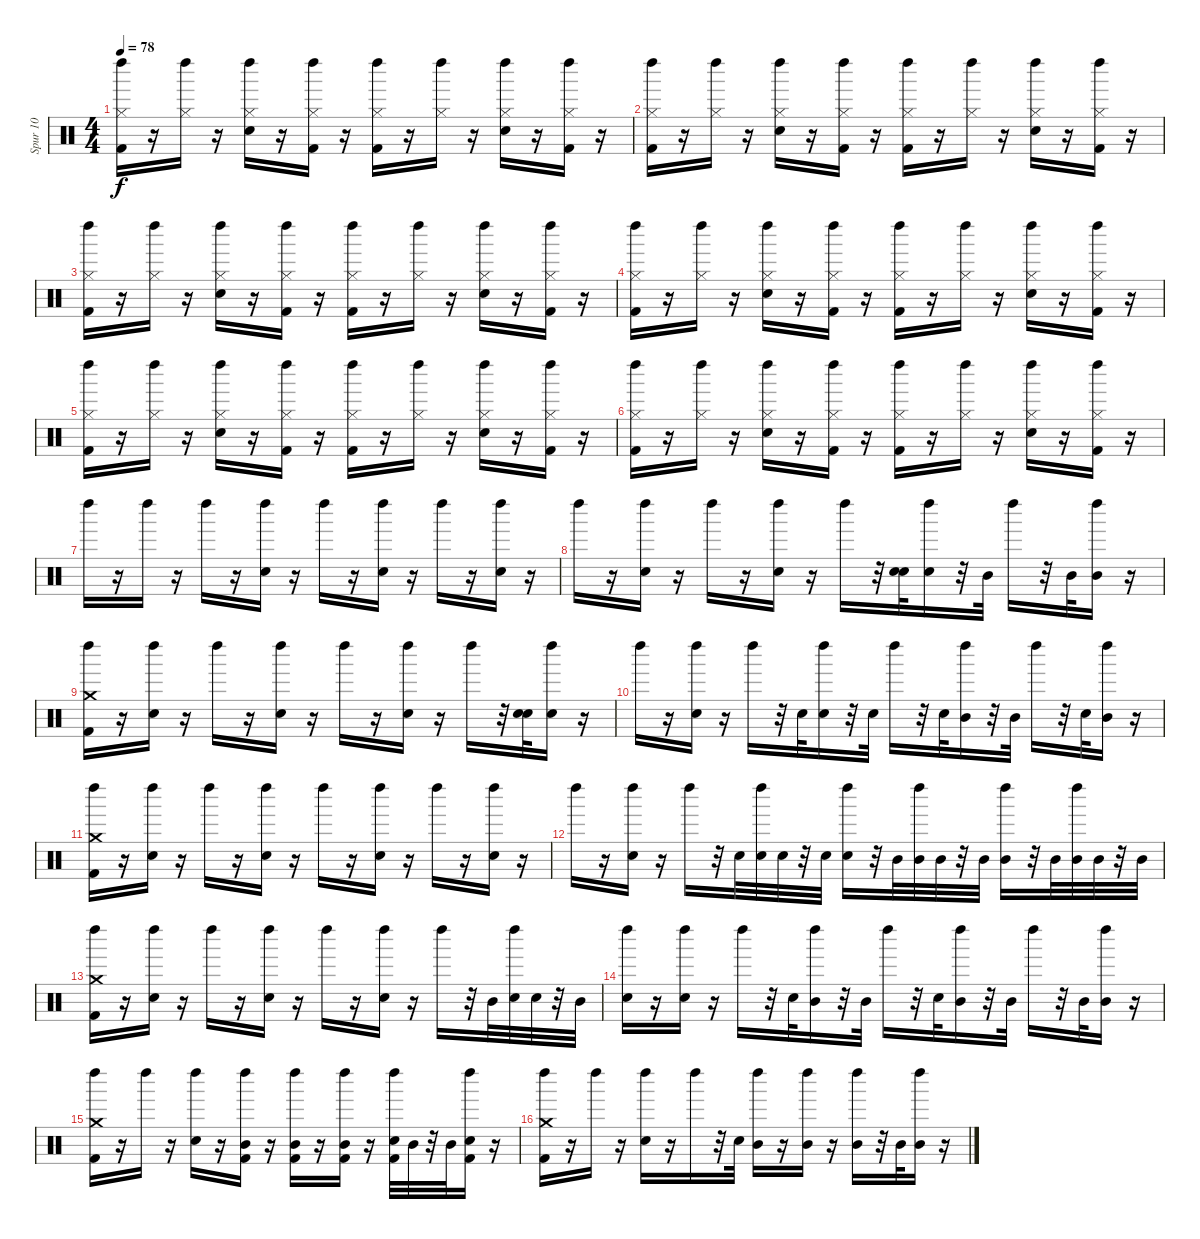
\track ("Spur 10" "Spur 10") {instrument percussion}
\staff {score}
\articulation defaults
\ts (4 4)
\tempo 78
\clef neutral
\ks c
("Left Maraca (hit)" "Kick (hit) 2" "Hi-Hat (closed)").16{dy f} r.16 ("Left Maraca (hit)" "Hi-Hat (closed)").16 r.16 ("Left Maraca (hit)" "Snare (hit) 2" "Hi-Hat (closed)").16 r.16 ("Left Maraca (hit)" "Kick (hit) 2" "Hi-Hat (closed)").16 r.16 ("Left Maraca (hit)" "Kick (hit) 2" "Hi-Hat (closed)").16 r.16 ("Left Maraca (hit)" "Hi-Hat (closed)").16 r.16 ("Left Maraca (hit)" "Snare (hit) 2" "Hi-Hat (closed)").16 r.16 ("Left Maraca (hit)" "Kick (hit) 2" "Hi-Hat (closed)").16 r.16 |
("Left Maraca (hit)" "Kick (hit) 2" "Hi-Hat (closed)").16 r.16 ("Left Maraca (hit)" "Hi-Hat (closed)").16 r.16 ("Left Maraca (hit)" "Snare (hit) 2" "Hi-Hat (closed)").16 r.16 ("Left Maraca (hit)" "Kick (hit) 2" "Hi-Hat (closed)").16 r.16 ("Left Maraca (hit)" "Kick (hit) 2" "Hi-Hat (closed)").16 r.16 ("Left Maraca (hit)" "Hi-Hat (closed)").16 r.16 ("Left Maraca (hit)" "Snare (hit) 2" "Hi-Hat (closed)").16 r.16 ("Left Maraca (hit)" "Kick (hit) 2" "Hi-Hat (closed)").16 r.16 |
("Left Maraca (hit)" "Kick (hit) 2" "Hi-Hat (closed)").16 r.16 ("Left Maraca (hit)" "Hi-Hat (closed)").16 r.16 ("Left Maraca (hit)" "Snare (hit) 2" "Hi-Hat (closed)").16 r.16 ("Left Maraca (hit)" "Kick (hit) 2" "Hi-Hat (closed)").16 r.16 ("Left Maraca (hit)" "Kick (hit) 2" "Hi-Hat (closed)").16 r.16 ("Left Maraca (hit)" "Hi-Hat (closed)").16 r.16 ("Left Maraca (hit)" "Snare (hit) 2" "Hi-Hat (closed)").16 r.16 ("Left Maraca (hit)" "Kick (hit) 2" "Hi-Hat (closed)").16 r.16 |
("Left Maraca (hit)" "Hi-Hat (closed)" "Kick (hit) 2").16 r.16 ("Left Maraca (hit)" "Hi-Hat (closed)").16 r.16 ("Left Maraca (hit)" "Hi-Hat (closed)" "Snare (hit) 2").16 r.16 ("Left Maraca (hit)" "Hi-Hat (closed)" "Kick (hit) 2").16 r.16 ("Left Maraca (hit)" "Hi-Hat (closed)" "Kick (hit) 2").16 r.16 ("Left Maraca (hit)" "Hi-Hat (closed)").16 r.16 ("Left Maraca (hit)" "Hi-Hat (closed)" "Snare (hit) 2").16 r.16 ("Left Maraca (hit)" "Hi-Hat (closed)" "Kick (hit) 2").16 r.16 |
("Left Maraca (hit)" "Hi-Hat (closed)" "Kick (hit) 2").16 r.16 ("Left Maraca (hit)" "Hi-Hat (closed)").16 r.16 ("Left Maraca (hit)" "Hi-Hat (closed)" "Snare (hit) 2").16 r.16 ("Left Maraca (hit)" "Hi-Hat (closed)" "Kick (hit) 2").16 r.16 ("Left Maraca (hit)" "Hi-Hat (closed)" "Kick (hit) 2").16 r.16 ("Left Maraca (hit)" "Hi-Hat (closed)").16 r.16 ("Left Maraca (hit)" "Hi-Hat (closed)" "Snare (hit) 2").16 r.16 ("Left Maraca (hit)" "Hi-Hat (closed)" "Kick (hit) 2").16 r.16 |
("Left Maraca (hit)" "Hi-Hat (closed)" "Kick (hit) 2").16 r.16 ("Left Maraca (hit)" "Hi-Hat (closed)").16 r.16 ("Left Maraca (hit)" "Hi-Hat (closed)" "Snare (hit) 2").16 r.16 ("Left Maraca (hit)" "Hi-Hat (closed)" "Kick (hit) 2").16 r.16 ("Left Maraca (hit)" "Hi-Hat (closed)" "Kick (hit) 2").16 r.16 ("Left Maraca (hit)" "Hi-Hat (closed)").16 r.16 ("Left Maraca (hit)" "Hi-Hat (closed)" "Snare (hit) 2").16 r.16 ("Left Maraca (hit)" "Hi-Hat (closed)" "Kick (hit) 2").16 r.16 |
"Left Maraca (hit)".16 r.16 "Left Maraca (hit)".16 r.16 "Left Maraca (hit)".16 r.16 ("Left Maraca (hit)" "Snare (hit) 2").16 r.16 "Left Maraca (hit)".16 r.16 ("Left Maraca (hit)" "Snare (hit) 2").16 r.16 "Left Maraca (hit)".16 r.16 ("Left Maraca (hit)" "Snare (hit) 2").16 r.16 |
"Left Maraca (hit)".16 r.16 ("Left Maraca (hit)" "Snare (hit) 2").16 r.16 "Left Maraca (hit)".16 r.16 ("Left Maraca (hit)" "Snare (hit) 2").16 r.16 "Left Maraca (hit)".16 r.32 ("Snare (hit) 2" "Snare (hit) 2").32 ("Left Maraca (hit)" "Snare (hit) 2").16 r.32 "Mid Tom (hit)".32 "Left Maraca (hit)".16 r.32 "Mid Tom (hit)".32 ("Left Maraca (hit)" "Mid Tom (hit)").16 r.16 |
("Left Maraca (hit)" "Kick (hit) 2" "Crash medium (hit)").16 r.16 ("Left Maraca (hit)" "Snare (hit) 2").16 r.16 "Left Maraca (hit)".16 r.16 ("Left Maraca (hit)" "Snare (hit) 2").16 r.16 "Left Maraca (hit)".16 r.16 ("Left Maraca (hit)" "Snare (hit) 2").16 r.16 "Left Maraca (hit)".16 r.32 ("Snare (hit) 2" "Snare (hit) 2").32 ("Left Maraca (hit)" "Snare (hit) 2").16 r.16 |
"Left Maraca (hit)".16 r.16 ("Left Maraca (hit)" "Snare (hit) 2").16 r.16 "Left Maraca (hit)".16 r.32 "Snare (hit) 2".32 ("Left Maraca (hit)" "Snare (hit) 2").16 r.32 "Snare (hit) 2".32 "Left Maraca (hit)".16 r.32 "Snare (hit) 2".32 ("Left Maraca (hit)" "Mid Tom (hit)").16 r.32 "Mid Tom (hit)".32 "Left Maraca (hit)".16 r.32 "Snare (hit) 2".32 ("Left Maraca (hit)" "Mid Tom (hit)").16 r.16 |
("Left Maraca (hit)" "Kick (hit) 2" "Crash medium (hit)").16 r.16 ("Left Maraca (hit)" "Snare (hit) 2").16 r.16 "Left Maraca (hit)".16 r.16 ("Left Maraca (hit)" "Snare (hit) 2").16 r.16 "Left Maraca (hit)".16 r.16 ("Left Maraca (hit)" "Snare (hit) 2").16 r.16 "Left Maraca (hit)".16 r.16 ("Left Maraca (hit)" "Snare (hit) 2").16 r.16 |
"Left Maraca (hit)".16 r.16 ("Left Maraca (hit)" "Snare (hit) 2").16 r.16 "Left Maraca (hit)".16 r.32 "Snare (hit) 2".32 ("Left Maraca (hit)" "Snare (hit) 2").32 "Snare (hit) 2".32 r.32 "Snare (hit) 2".32 ("Left Maraca (hit)" "Snare (hit) 2").16 r.32 "Mid Tom (hit)".32 ("Left Maraca (hit)" "Mid Tom (hit)").32 "Mid Tom (hit)".32 r.32 "Mid Tom (hit)".32 ("Left Maraca (hit)" "Mid Tom (hit)").16 r.32 "Mid Tom (hit)".32 ("Left Maraca (hit)" "Mid Tom (hit)").32 "Mid Tom (hit)".32 r.32 "Mid Tom (hit)".32 |
("Left Maraca (hit)" "Kick (hit) 2" "Crash medium (hit)").16 r.16 ("Left Maraca (hit)" "Snare (hit) 2").16 r.16 "Left Maraca (hit)".16 r.16 ("Left Maraca (hit)" "Snare (hit) 2").16 r.16 "Left Maraca (hit)".16 r.16 ("Left Maraca (hit)" "Snare (hit) 2").16 r.16 "Left Maraca (hit)".16 r.32 "Mid Tom (hit)".32 ("Left Maraca (hit)" "Snare (hit) 2").32 "Snare (hit) 2".32 r.32 "Mid Tom (hit)".32 |
("Left Maraca (hit)" "Snare (hit) 2").16 r.16 ("Left Maraca (hit)" "Snare (hit) 2").16 r.16 "Left Maraca (hit)".16 r.32 "Snare (hit) 2".32 ("Left Maraca (hit)" "Mid Tom (hit)").16 r.32 "Mid Tom (hit)".32 "Left Maraca (hit)".16 r.32 "Snare (hit) 2".32 ("Left Maraca (hit)" "Mid Tom (hit)").16 r.32 "Mid Tom (hit)".32 "Left Maraca (hit)".16 r.32 "Mid Tom (hit)".32 ("Left Maraca (hit)" "Mid Tom (hit)").16 r.16 |
("Left Maraca (hit)" "Kick (hit) 2" "Crash medium (hit)").16 r.16 "Left Maraca (hit)".16 r.16 ("Left Maraca (hit)" "Snare (hit) 2").16 r.16 ("Left Maraca (hit)" "Kick (hit) 2" "Mid Tom (hit)").16 r.16 ("Left Maraca (hit)" "Kick (hit) 2" "Mid Tom (hit)").16 r.16 ("Left Maraca (hit)" "Kick (hit) 2" "Mid Tom (hit)").16 r.16 ("Left Maraca (hit)" "Kick (hit) 2" "Snare (hit) 2").32 "Mid Tom (hit)".32 r.32 "Mid Tom (hit)".32 ("Left Maraca (hit)" "Kick (hit) 2" "Snare (hit) 2").16 r.16 |
("Left Maraca (hit)" "Kick (hit) 2" "Crash medium (hit)").16 r.16 "Left Maraca (hit)".16 r.16 ("Left Maraca (hit)" "Snare (hit) 2").16 r.16 "Left Maraca (hit)".16 r.32 "Snare (hit) 2".32 ("Left Maraca (hit)" "Mid Tom (hit)").16 r.16 ("Left Maraca (hit)" "Mid Tom (hit)").16 r.16 ("Left Maraca (hit)" "Mid Tom (hit)").16 r.32 "Mid Tom (hit)".32 ("Left Maraca (hit)" "Mid Tom (hit)").16 r.16
